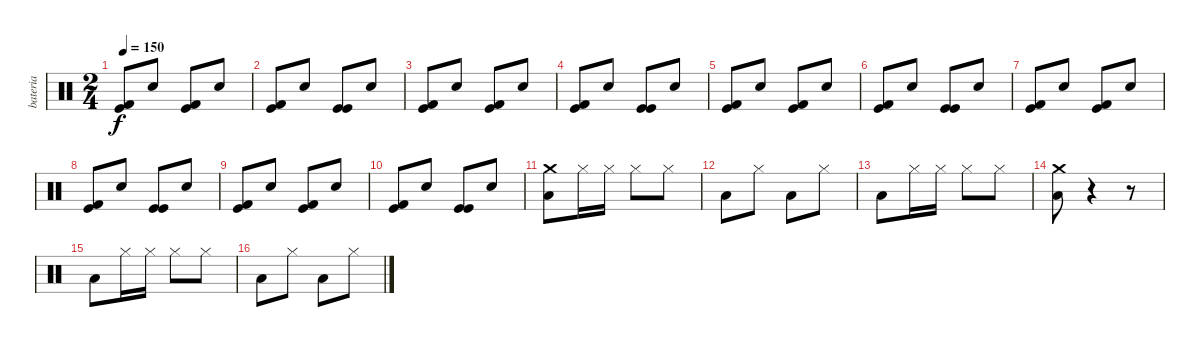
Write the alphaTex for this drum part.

\track ("bateria" "bateria") {instrument percussion}
\staff {score}
\articulation defaults
\ts (2 4)
\tempo 150
\clef neutral
\ks c
("Kick (hit) 2" "Kick (hit)").8{dy f} "Electric Snare (hit)".8 ("Kick (hit) 2" "Kick (hit)").8 "Electric Snare (hit)".8 |
("Kick (hit) 2" "Kick (hit)").8 "Electric Snare (hit)".8 ("Kick (hit)" "Kick (hit)").8 "Electric Snare (hit)".8 |
("Kick (hit) 2" "Kick (hit)").8 "Electric Snare (hit)".8 ("Kick (hit) 2" "Kick (hit)").8 "Electric Snare (hit)".8 |
("Kick (hit) 2" "Kick (hit)").8 "Electric Snare (hit)".8 ("Kick (hit)" "Kick (hit)").8 "Electric Snare (hit)".8 |
("Kick (hit) 2" "Kick (hit)").8 "Electric Snare (hit)".8 ("Kick (hit) 2" "Kick (hit)").8 "Electric Snare (hit)".8 |
("Kick (hit) 2" "Kick (hit)").8 "Electric Snare (hit)".8 ("Kick (hit)" "Kick (hit)").8 "Electric Snare (hit)".8 |
("Kick (hit) 2" "Kick (hit)").8 "Electric Snare (hit)".8 ("Kick (hit) 2" "Kick (hit)").8 "Electric Snare (hit)".8 |
("Kick (hit) 2" "Kick (hit)").8 "Electric Snare (hit)".8 ("Kick (hit)" "Kick (hit)").8 "Electric Snare (hit)".8 |
("Kick (hit) 2" "Kick (hit)").8 "Electric Snare (hit)".8 ("Kick (hit) 2" "Kick (hit)").8 "Electric Snare (hit)".8 |
("Kick (hit) 2" "Kick (hit)").8 "Electric Snare (hit)".8 ("Kick (hit)" "Kick (hit)").8 "Electric Snare (hit)".8 |
("Crash medium (hit)" "Low Tom (hit)").8 "Hi-Hat (closed)".16 "Hi-Hat (closed)".16 "Hi-Hat (closed)".8 "Hi-Hat (closed)".8 |
"Low Tom (hit)".8 "Hi-Hat (closed)".8 "Low Tom (hit)".8 "Hi-Hat (closed)".8 |
"Low Tom (hit)".8 "Hi-Hat (closed)".16 "Hi-Hat (closed)".16 "Hi-Hat (closed)".8 "Hi-Hat (closed)".8 |
("Crash medium (hit)" "Low Tom (hit)").8 r.4 r.8 |
"Low Tom (hit)".8 "Hi-Hat (closed)".16 "Hi-Hat (closed)".16 "Hi-Hat (closed)".8 "Hi-Hat (closed)".8 |
"Low Tom (hit)".8 "Hi-Hat (closed)".8 "Low Tom (hit)".8 "Hi-Hat (closed)".8
